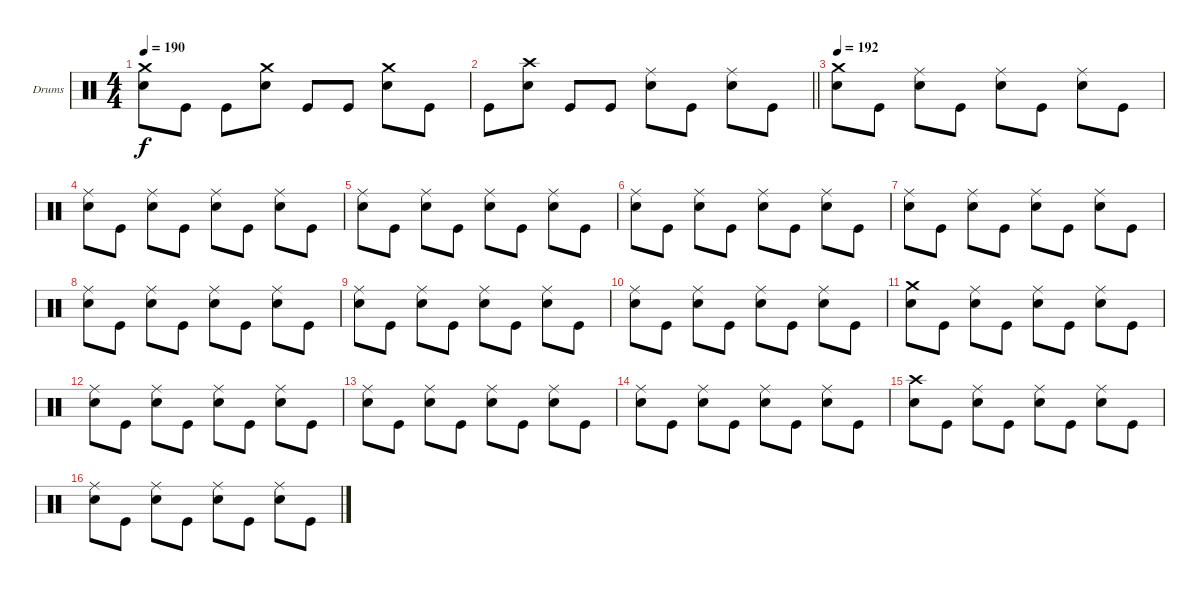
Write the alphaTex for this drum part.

\bracketExtendMode groupsimilarinstruments
\firstSystemTrackNameOrientation horizontal
\otherSystemsTrackNameOrientation horizontal
\track ("Максим Удалов" "Drums") {instrument percussion}
\staff {score}
\articulation defaults
\ts (4 4)
\tempo 190
\clef neutral
\ks c
("Snare (hit) 2" "Crash medium (hit)").8{dy f} "Kick (hit)".8 "Kick (hit)".8 ("Snare (hit) 2" "Crash medium (hit)").8 "Kick (hit)".8 "Kick (hit)".8 ("Snare (hit) 2" "Crash medium (hit)").8 "Kick (hit)".8 |
\barLineRight lightlight "Kick (hit)".8
("Snare (hit) 2" "Crash high (hit)").8 "Kick (hit)".8 "Kick (hit)".8 ("Snare (hit) 2" "Ride (middle)").8 "Kick (hit)".8 ("Snare (hit) 2" "Ride (middle)").8 "Kick (hit)".8 |
\tempo 192
("Snare (hit) 2" "Crash medium (hit)").8 "Kick (hit)".8 ("Snare (hit) 2" "Ride (middle)").8 "Kick (hit)".8 ("Snare (hit) 2" "Ride (middle)").8 "Kick (hit)".8 ("Snare (hit) 2" "Ride (middle)").8 "Kick (hit)".8 |
("Snare (hit) 2" "Ride (middle)").8 "Kick (hit)".8 ("Snare (hit) 2" "Ride (middle)").8 "Kick (hit)".8 ("Snare (hit) 2" "Ride (middle)").8 "Kick (hit)".8 ("Snare (hit) 2" "Ride (middle)").8 "Kick (hit)".8 |
("Snare (hit) 2" "Ride (middle)").8 "Kick (hit)".8 ("Snare (hit) 2" "Ride (middle)").8 "Kick (hit)".8 ("Snare (hit) 2" "Ride (middle)").8 "Kick (hit)".8 ("Snare (hit) 2" "Ride (middle)").8 "Kick (hit)".8 |
("Snare (hit) 2" "Ride (middle)").8 "Kick (hit)".8 ("Snare (hit) 2" "Ride (middle)").8 "Kick (hit)".8 ("Snare (hit) 2" "Ride (middle)").8 "Kick (hit)".8 ("Snare (hit) 2" "Ride (middle)").8 "Kick (hit)".8 |
("Snare (hit) 2" "Ride (middle)").8 "Kick (hit)".8 ("Snare (hit) 2" "Ride (middle)").8 "Kick (hit)".8 ("Snare (hit) 2" "Ride (middle)").8 "Kick (hit)".8 ("Snare (hit) 2" "Ride (middle)").8 "Kick (hit)".8 |
("Snare (hit) 2" "Ride (middle)").8 "Kick (hit)".8 ("Snare (hit) 2" "Ride (middle)").8 "Kick (hit)".8 ("Snare (hit) 2" "Ride (middle)").8 "Kick (hit)".8 ("Snare (hit) 2" "Ride (middle)").8 "Kick (hit)".8 |
("Snare (hit) 2" "Ride (middle)").8 "Kick (hit)".8 ("Snare (hit) 2" "Ride (middle)").8 "Kick (hit)".8 ("Snare (hit) 2" "Ride (middle)").8 "Kick (hit)".8 ("Snare (hit) 2" "Ride (middle)").8 "Kick (hit)".8 |
("Snare (hit) 2" "Ride (middle)").8 "Kick (hit)".8 ("Snare (hit) 2" "Ride (middle)").8 "Kick (hit)".8 ("Snare (hit) 2" "Ride (middle)").8 "Kick (hit)".8 ("Snare (hit) 2" "Ride (middle)").8 "Kick (hit)".8 |
("Snare (hit) 2" "Crash medium (hit)").8 "Kick (hit)".8 ("Snare (hit) 2" "Ride (middle)").8 "Kick (hit)".8 ("Snare (hit) 2" "Ride (middle)").8 "Kick (hit)".8 ("Snare (hit) 2" "Ride (middle)").8 "Kick (hit)".8 |
("Snare (hit) 2" "Ride (middle)").8 "Kick (hit)".8 ("Snare (hit) 2" "Ride (middle)").8 "Kick (hit)".8 ("Snare (hit) 2" "Ride (middle)").8 "Kick (hit)".8 ("Snare (hit) 2" "Ride (middle)").8 "Kick (hit)".8 |
("Snare (hit) 2" "Ride (middle)").8 "Kick (hit)".8 ("Snare (hit) 2" "Ride (middle)").8 "Kick (hit)".8 ("Snare (hit) 2" "Ride (middle)").8 "Kick (hit)".8 ("Snare (hit) 2" "Ride (middle)").8 "Kick (hit)".8 |
("Snare (hit) 2" "Ride (middle)").8 "Kick (hit)".8 ("Snare (hit) 2" "Ride (middle)").8 "Kick (hit)".8 ("Snare (hit) 2" "Ride (middle)").8 "Kick (hit)".8 ("Snare (hit) 2" "Ride (middle)").8 "Kick (hit)".8 |
("Snare (hit) 2" "Crash high (hit)").8 "Kick (hit)".8 ("Snare (hit) 2" "Ride (middle)").8 "Kick (hit)".8 ("Snare (hit) 2" "Ride (middle)").8 "Kick (hit)".8 ("Snare (hit) 2" "Ride (middle)").8 "Kick (hit)".8 |
("Snare (hit) 2" "Ride (middle)").8 "Kick (hit)".8 ("Snare (hit) 2" "Ride (middle)").8 "Kick (hit)".8 ("Snare (hit) 2" "Ride (middle)").8 "Kick (hit)".8 ("Snare (hit) 2" "Ride (middle)").8 "Kick (hit)".8
